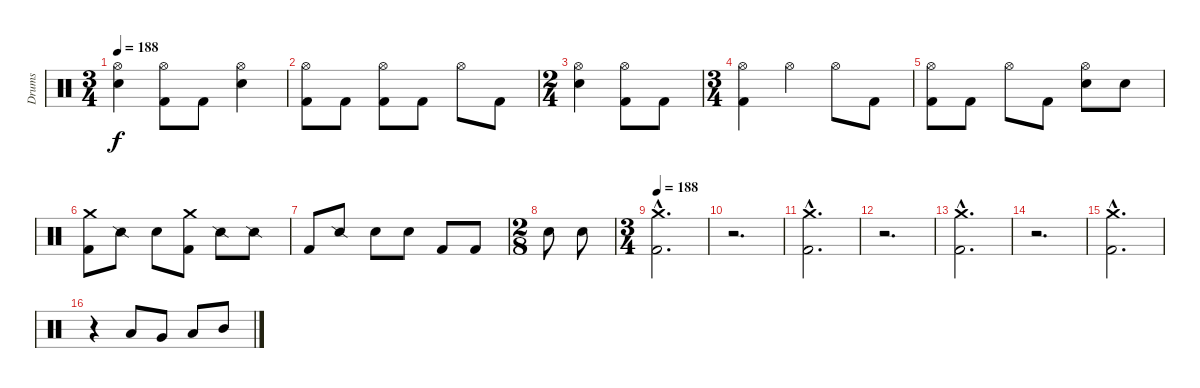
\track ("Drums" "Drums") {instrument percussion}
\staff {score}
\articulation defaults
\ts (3 4)
\tempo 188
\clef neutral
\ks c
("Electric Snare (hit)" "Hi-Hat (open)").4{dy f} ("Hi-Hat (open)" "Kick (hit) 2").8 "Kick (hit) 2".8 ("Electric Snare (hit)" "Hi-Hat (open)").4 |
("Hi-Hat (open)" "Kick (hit) 2").8 "Kick (hit) 2".8 ("Hi-Hat (open)" "Kick (hit) 2").8 "Kick (hit) 2".8 "Hi-Hat (open)".8 "Kick (hit) 2".8 |
\ts (2 4)
("Electric Snare (hit)" "Hi-Hat (open)").4 ("Hi-Hat (open)" "Kick (hit) 2").8 "Kick (hit) 2".8 |
\ts (3 4)
("Hi-Hat (open)" "Kick (hit) 2").4 "Hi-Hat (open)".4 "Hi-Hat (open)".8 "Kick (hit) 2".8 |
("Hi-Hat (open)" "Kick (hit) 2").8 "Kick (hit) 2".8 "Hi-Hat (open)".8 "Kick (hit) 2".8 ("Electric Snare (hit)" "Hi-Hat (open)").8 "Electric Snare (hit)".8 |
("Crash medium (hit)" "Kick (hit) 2").8 "Snare (side stick) 2".8 "Electric Snare (hit)".8 ("Crash medium (hit)" "Kick (hit) 2").8 "Snare (side stick) 2".8 "Snare (side stick) 2".8 |
"Kick (hit) 2".8 "Snare (side stick) 2".8 "Electric Snare (hit)".8 "Electric Snare (hit)".8 "Kick (hit) 2".8 "Kick (hit) 2".8 |
\ts (2 8)
"Electric Snare (hit)".8 "Electric Snare (hit)".8 |
\ts (3 4)
\tempo 188
("Crash medium (hit)"{hac} "Kick (hit) 2"{hac}).2{d} |
r.2{d} |
("Crash medium (hit)"{hac} "Kick (hit) 2"{hac}).2{d} |
r.2{d} |
("Crash medium (hit)"{hac} "Kick (hit) 2"{hac}).2{d} |
r.2{d} |
("Crash medium (hit)"{hac} "Kick (hit) 2"{hac}).2{d} |
r.4 "Low Floor Tom (hit)".8 "Very Low Tom (hit)".8 "Low Tom (hit)".8 "Mid Tom (hit)".8
